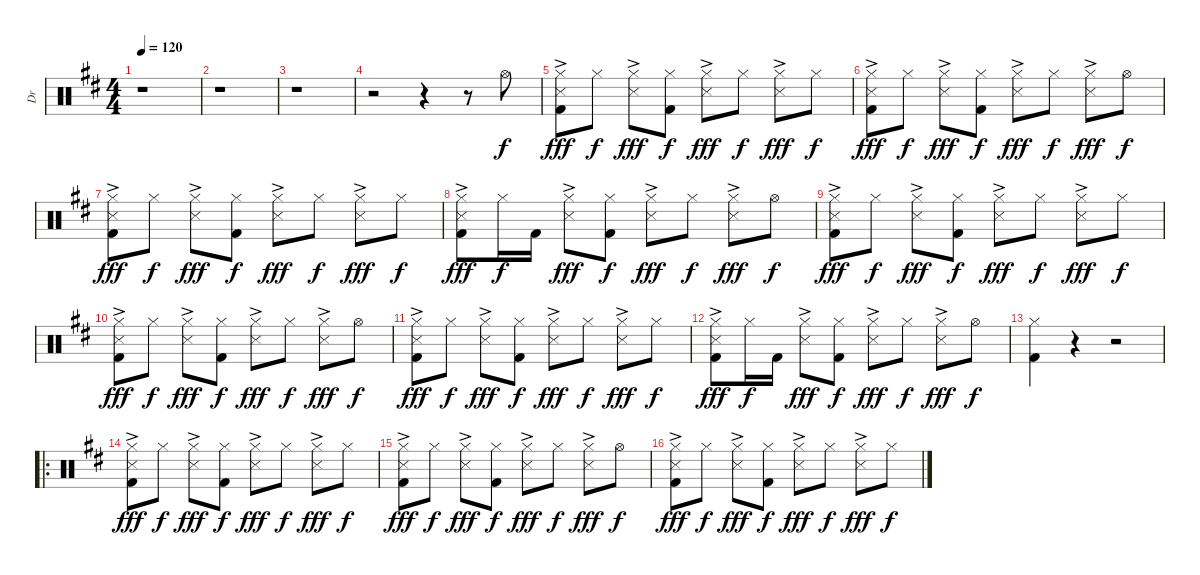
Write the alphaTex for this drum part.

\track ("Dr" "Dr") {instrument percussion}
\staff {score}
\articulation defaults
\ts (4 4)
\tempo 120
\clef neutral
\ks d
r.1{dy f volume 13} |
r.1 |
r.1 |
r.2 r.4 r.8 "Hi-Hat (open)".8 |
("Hi-Hat (closed)" "Snare (side stick) 3"{ac} "Kick (hit) 2").8{dy fff} "Hi-Hat (closed)".8{dy f} ("Hi-Hat (closed)" "Snare (side stick) 3"{ac}).8{dy fff} ("Hi-Hat (closed)" "Kick (hit) 2").8{dy f} ("Hi-Hat (closed)" "Snare (side stick) 3"{ac}).8{dy fff} "Hi-Hat (closed)".8{dy f} ("Hi-Hat (closed)" "Snare (side stick) 3"{ac}).8{dy fff} "Hi-Hat (closed)".8{dy f} |
("Hi-Hat (closed)" "Snare (side stick) 3"{ac} "Kick (hit) 2").8{dy fff} "Hi-Hat (closed)".8{dy f} ("Hi-Hat (closed)" "Snare (side stick) 3"{ac}).8{dy fff} ("Hi-Hat (closed)" "Kick (hit) 2").8{dy f} ("Hi-Hat (closed)" "Snare (side stick) 3"{ac}).8{dy fff} "Hi-Hat (closed)".8{dy f} ("Hi-Hat (closed)" "Snare (side stick) 3"{ac}).8{dy fff} "Hi-Hat (open)".8{dy f} |
("Hi-Hat (closed)" "Snare (side stick) 3"{ac} "Kick (hit) 2").8{dy fff} "Hi-Hat (closed)".8{dy f} ("Hi-Hat (closed)" "Snare (side stick) 3"{ac}).8{dy fff} ("Hi-Hat (closed)" "Kick (hit) 2").8{dy f} ("Hi-Hat (closed)" "Snare (side stick) 3"{ac}).8{dy fff} "Hi-Hat (closed)".8{dy f} ("Hi-Hat (closed)" "Snare (side stick) 3"{ac}).8{dy fff} "Hi-Hat (closed)".8{dy f} |
("Hi-Hat (closed)" "Snare (side stick) 3"{ac} "Kick (hit) 2").8{dy fff} "Hi-Hat (closed)".16{dy f} "Kick (hit) 2".16 ("Hi-Hat (closed)" "Snare (side stick) 3"{ac}).8{dy fff} ("Hi-Hat (closed)" "Kick (hit) 2").8{dy f} ("Hi-Hat (closed)" "Snare (side stick) 3"{ac}).8{dy fff} "Hi-Hat (closed)".8{dy f} ("Hi-Hat (closed)" "Snare (side stick) 3"{ac}).8{dy fff} "Hi-Hat (open)".8{dy f} |
("Hi-Hat (closed)" "Snare (side stick) 3"{ac} "Kick (hit) 2").8{dy fff} "Hi-Hat (closed)".8{dy f} ("Hi-Hat (closed)" "Snare (side stick) 3"{ac}).8{dy fff} ("Hi-Hat (closed)" "Kick (hit) 2").8{dy f} ("Hi-Hat (closed)" "Snare (side stick) 3"{ac}).8{dy fff} "Hi-Hat (closed)".8{dy f} ("Hi-Hat (closed)" "Snare (side stick) 3"{ac}).8{dy fff} "Hi-Hat (closed)".8{dy f} |
("Hi-Hat (closed)" "Snare (side stick) 3"{ac} "Kick (hit) 2").8{dy fff} "Hi-Hat (closed)".8{dy f} ("Hi-Hat (closed)" "Snare (side stick) 3"{ac}).8{dy fff} ("Hi-Hat (closed)" "Kick (hit) 2").8{dy f} ("Hi-Hat (closed)" "Snare (side stick) 3"{ac}).8{dy fff} "Hi-Hat (closed)".8{dy f} ("Hi-Hat (closed)" "Snare (side stick) 3"{ac}).8{dy fff} "Hi-Hat (open)".8{dy f} |
("Hi-Hat (closed)" "Snare (side stick) 3"{ac} "Kick (hit) 2").8{dy fff} "Hi-Hat (closed)".8{dy f} ("Hi-Hat (closed)" "Snare (side stick) 3"{ac}).8{dy fff} ("Hi-Hat (closed)" "Kick (hit) 2").8{dy f} ("Hi-Hat (closed)" "Snare (side stick) 3"{ac}).8{dy fff} "Hi-Hat (closed)".8{dy f} ("Hi-Hat (closed)" "Snare (side stick) 3"{ac}).8{dy fff} "Hi-Hat (closed)".8{dy f} |
("Hi-Hat (closed)" "Snare (side stick) 3"{ac} "Kick (hit) 2").8{dy fff} "Hi-Hat (closed)".16{dy f} "Kick (hit) 2".16 ("Hi-Hat (closed)" "Snare (side stick) 3"{ac}).8{dy fff} ("Hi-Hat (closed)" "Kick (hit) 2").8{dy f} ("Hi-Hat (closed)" "Snare (side stick) 3"{ac}).8{dy fff} "Hi-Hat (closed)".8{dy f} ("Hi-Hat (closed)" "Snare (side stick) 3"{ac}).8{dy fff} "Hi-Hat (open)".8{dy f} |
("Hi-Hat (closed)" "Kick (hit) 2").4 r.4 r.2 |
\ro
("Hi-Hat (closed)" "Snare (side stick) 3"{ac} "Kick (hit) 2").8{dy fff} "Hi-Hat (closed)".8{dy f} ("Hi-Hat (closed)" "Snare (side stick) 3"{ac}).8{dy fff} ("Hi-Hat (closed)" "Kick (hit) 2").8{dy f} ("Hi-Hat (closed)" "Snare (side stick) 3"{ac}).8{dy fff} "Hi-Hat (closed)".8{dy f} ("Hi-Hat (closed)" "Snare (side stick) 3"{ac}).8{dy fff} "Hi-Hat (closed)".8{dy f} |
("Hi-Hat (closed)" "Snare (side stick) 3"{ac} "Kick (hit) 2").8{dy fff} "Hi-Hat (closed)".8{dy f} ("Hi-Hat (closed)" "Snare (side stick) 3"{ac}).8{dy fff} ("Hi-Hat (closed)" "Kick (hit) 2").8{dy f} ("Hi-Hat (closed)" "Snare (side stick) 3"{ac}).8{dy fff} "Hi-Hat (closed)".8{dy f} ("Hi-Hat (closed)" "Snare (side stick) 3"{ac}).8{dy fff} "Hi-Hat (open)".8{dy f} |
("Hi-Hat (closed)" "Snare (side stick) 3"{ac} "Kick (hit) 2").8{dy fff} "Hi-Hat (closed)".8{dy f} ("Hi-Hat (closed)" "Snare (side stick) 3"{ac}).8{dy fff} ("Hi-Hat (closed)" "Kick (hit) 2").8{dy f} ("Hi-Hat (closed)" "Snare (side stick) 3"{ac}).8{dy fff} "Hi-Hat (closed)".8{dy f} ("Hi-Hat (closed)" "Snare (side stick) 3"{ac}).8{dy fff} "Hi-Hat (closed)".8{dy f}
